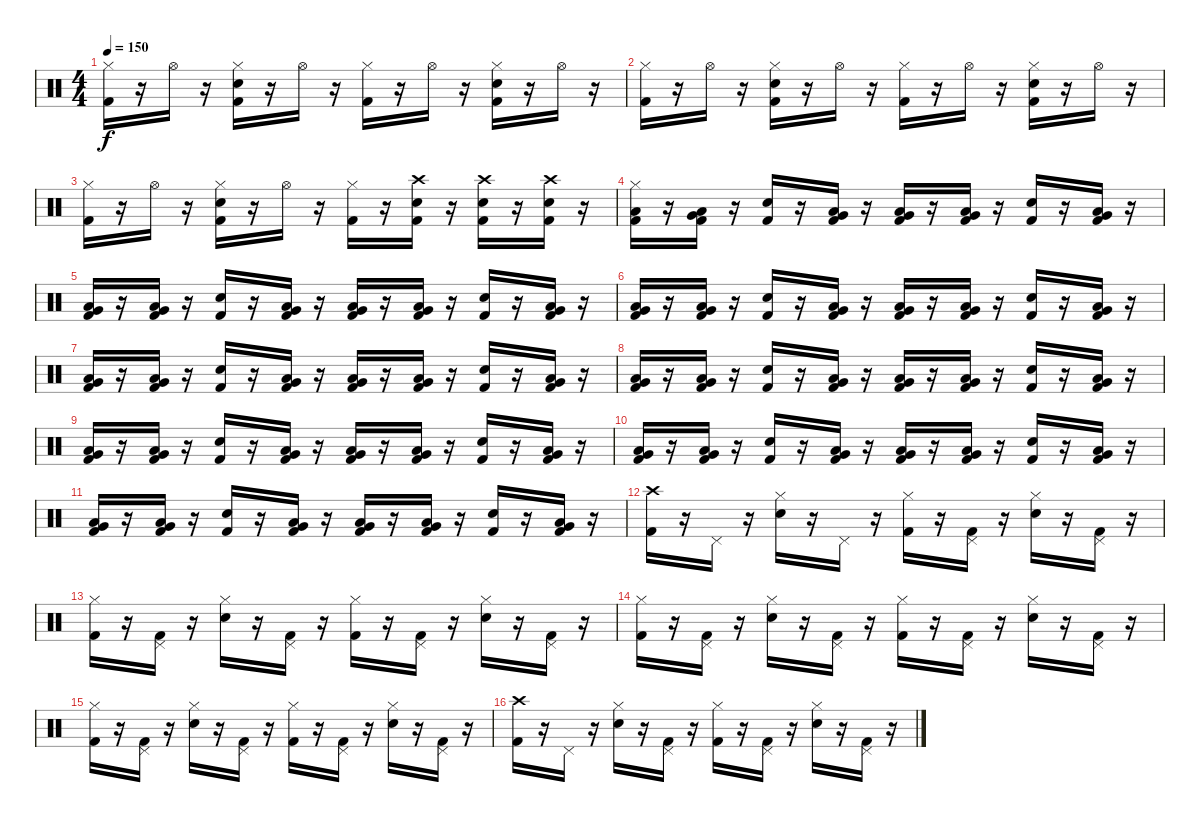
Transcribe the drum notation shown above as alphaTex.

\track "" {instrument percussion}
\staff {score}
\articulation defaults
\ts (4 4)
\tempo 150
\clef neutral
\ks c
("Hi-Hat (closed)" "Kick (hit) 2").16{dy f} r.16 "Hi-Hat (open)".16 r.16 ("Electric Snare (hit)" "Kick (hit) 2" "Hi-Hat (closed)").16 r.16 "Hi-Hat (open)".16 r.16 ("Kick (hit) 2" "Hi-Hat (closed)").16 r.16 "Hi-Hat (open)".16 r.16 ("Electric Snare (hit)" "Kick (hit) 2" "Hi-Hat (closed)").16 r.16 "Hi-Hat (open)".16 r.16 |
("Hi-Hat (closed)" "Kick (hit) 2").16 r.16 "Hi-Hat (open)".16 r.16 ("Hi-Hat (closed)" "Kick (hit) 2" "Electric Snare (hit)").16 r.16 "Hi-Hat (open)".16 r.16 ("Hi-Hat (closed)" "Kick (hit) 2").16 r.16 "Hi-Hat (open)".16 r.16 ("Hi-Hat (closed)" "Kick (hit) 2" "Electric Snare (hit)").16 r.16 "Hi-Hat (open)".16 r.16 |
("Hi-Hat (closed)" "Kick (hit) 2").16 r.16 "Hi-Hat (open)".16 r.16 ("Electric Snare (hit)" "Kick (hit) 2" "Hi-Hat (closed)").16 r.16 "Hi-Hat (open)".16 r.16 ("Kick (hit) 2" "Hi-Hat (closed)").16 r.16 ("Kick (hit) 2" "Crash high (hit)" "Electric Snare (hit)").16 r.16 ("Crash high (hit)" "Electric Snare (hit)" "Kick (hit) 2").16 r.16 ("Kick (hit) 2" "Electric Snare (hit)" "Crash high (hit)").16 r.16 |
("Hi-Hat (closed)" "Kick (hit) 2" "Low Tom (hit)").16 r.16 ("Kick (hit) 2" "Very Low Tom (hit)" "Low Tom (hit)").16 r.16 ("Kick (hit) 2" "Electric Snare (hit)").16 r.16 ("Kick (hit) 2" "Low Tom (hit)" "Very Low Tom (hit)").16 r.16 ("Kick (hit) 2" "Very Low Tom (hit)" "Low Tom (hit)").16 r.16 ("Kick (hit) 2" "Very Low Tom (hit)" "Low Tom (hit)").16 r.16 ("Kick (hit) 2" "Electric Snare (hit)").16 r.16 ("Kick (hit) 2" "Very Low Tom (hit)" "Low Tom (hit)").16 r.16 |
("Kick (hit) 2" "Very Low Tom (hit)" "Low Tom (hit)").16 r.16 ("Kick (hit) 2" "Low Tom (hit)" "Very Low Tom (hit)").16 r.16 ("Kick (hit) 2" "Electric Snare (hit)").16 r.16 ("Kick (hit) 2" "Very Low Tom (hit)" "Low Tom (hit)").16 r.16 ("Kick (hit) 2" "Low Tom (hit)" "Very Low Tom (hit)").16 r.16 ("Kick (hit) 2" "Low Tom (hit)" "Very Low Tom (hit)").16 r.16 ("Kick (hit) 2" "Electric Snare (hit)").16 r.16 ("Kick (hit) 2" "Low Tom (hit)" "Very Low Tom (hit)").16 r.16 |
("Kick (hit) 2" "Very Low Tom (hit)" "Low Tom (hit)").16 r.16 ("Kick (hit) 2" "Very Low Tom (hit)" "Low Tom (hit)").16 r.16 ("Kick (hit) 2" "Electric Snare (hit)").16 r.16 ("Kick (hit) 2" "Low Tom (hit)" "Very Low Tom (hit)").16 r.16 ("Kick (hit) 2" "Very Low Tom (hit)" "Low Tom (hit)").16 r.16 ("Kick (hit) 2" "Very Low Tom (hit)" "Low Tom (hit)").16 r.16 ("Kick (hit) 2" "Electric Snare (hit)").16 r.16 ("Kick (hit) 2" "Very Low Tom (hit)" "Low Tom (hit)").16 r.16 |
("Kick (hit) 2" "Very Low Tom (hit)" "Low Tom (hit)").16 r.16 ("Kick (hit) 2" "Low Tom (hit)" "Very Low Tom (hit)").16 r.16 ("Kick (hit) 2" "Electric Snare (hit)").16 r.16 ("Kick (hit) 2" "Very Low Tom (hit)" "Low Tom (hit)").16 r.16 ("Kick (hit) 2" "Low Tom (hit)" "Very Low Tom (hit)").16 r.16 ("Kick (hit) 2" "Low Tom (hit)" "Very Low Tom (hit)").16 r.16 ("Kick (hit) 2" "Electric Snare (hit)").16 r.16 ("Kick (hit) 2" "Low Tom (hit)" "Very Low Tom (hit)").16 r.16 |
("Low Tom (hit)" "Very Low Tom (hit)" "Kick (hit) 2").16 r.16 ("Very Low Tom (hit)" "Low Tom (hit)" "Kick (hit) 2").16 r.16 ("Electric Snare (hit)" "Kick (hit) 2").16 r.16 ("Low Tom (hit)" "Very Low Tom (hit)" "Kick (hit) 2").16 r.16 ("Very Low Tom (hit)" "Low Tom (hit)" "Kick (hit) 2").16 r.16 ("Very Low Tom (hit)" "Low Tom (hit)" "Kick (hit) 2").16 r.16 ("Electric Snare (hit)" "Kick (hit) 2").16 r.16 ("Very Low Tom (hit)" "Low Tom (hit)" "Kick (hit) 2").16 r.16 |
("Very Low Tom (hit)" "Low Tom (hit)" "Kick (hit) 2").16 r.16 ("Kick (hit) 2" "Low Tom (hit)" "Very Low Tom (hit)").16 r.16 ("Kick (hit) 2" "Electric Snare (hit)").16 r.16 ("Kick (hit) 2" "Very Low Tom (hit)" "Low Tom (hit)").16 r.16 ("Kick (hit) 2" "Low Tom (hit)" "Very Low Tom (hit)").16 r.16 ("Kick (hit) 2" "Low Tom (hit)" "Very Low Tom (hit)").16 r.16 ("Kick (hit) 2" "Electric Snare (hit)").16 r.16 ("Kick (hit) 2" "Low Tom (hit)" "Very Low Tom (hit)").16 r.16 |
("Low Tom (hit)" "Very Low Tom (hit)" "Kick (hit) 2").16 r.16 ("Very Low Tom (hit)" "Low Tom (hit)" "Kick (hit) 2").16 r.16 ("Electric Snare (hit)" "Kick (hit) 2").16 r.16 ("Low Tom (hit)" "Very Low Tom (hit)" "Kick (hit) 2").16 r.16 ("Very Low Tom (hit)" "Low Tom (hit)" "Kick (hit) 2").16 r.16 ("Very Low Tom (hit)" "Low Tom (hit)" "Kick (hit) 2").16 r.16 ("Electric Snare (hit)" "Kick (hit) 2").16 r.16 ("Very Low Tom (hit)" "Low Tom (hit)" "Kick (hit) 2").16 r.16 |
("Very Low Tom (hit)" "Low Tom (hit)" "Kick (hit) 2").16 r.16 ("Kick (hit) 2" "Low Tom (hit)" "Very Low Tom (hit)").16 r.16 ("Kick (hit) 2" "Electric Snare (hit)").16 r.16 ("Kick (hit) 2" "Very Low Tom (hit)" "Low Tom (hit)").16 r.16 ("Kick (hit) 2" "Low Tom (hit)" "Very Low Tom (hit)").16 r.16 ("Kick (hit) 2" "Low Tom (hit)" "Very Low Tom (hit)").16 r.16 ("Kick (hit) 2" "Electric Snare (hit)").16 r.16 ("Kick (hit) 2" "Low Tom (hit)" "Very Low Tom (hit)").16 r.16 |
("Crash high (hit)" "Kick (hit) 2").16 r.16 "Pedal Hi-Hat (hit)".16 r.16 ("Electric Snare (hit)" "Hi-Hat (closed)").16 r.16 "Pedal Hi-Hat (hit)".16 r.16 ("Kick (hit) 2" "Hi-Hat (closed)").16 r.16 ("Kick (hit) 2" "Pedal Hi-Hat (hit)").16 r.16 ("Electric Snare (hit)" "Hi-Hat (closed)").16 r.16 ("Kick (hit) 2" "Pedal Hi-Hat (hit)").16 r.16 |
("Hi-Hat (closed)" "Kick (hit) 2").16 r.16 ("Kick (hit) 2" "Pedal Hi-Hat (hit)").16 r.16 ("Hi-Hat (closed)" "Electric Snare (hit)").16 r.16 ("Kick (hit) 2" "Pedal Hi-Hat (hit)").16 r.16 ("Hi-Hat (closed)" "Kick (hit) 2").16 r.16 ("Pedal Hi-Hat (hit)" "Kick (hit) 2").16 r.16 ("Hi-Hat (closed)" "Electric Snare (hit)").16 r.16 ("Kick (hit) 2" "Pedal Hi-Hat (hit)").16 r.16 |
("Hi-Hat (closed)" "Kick (hit) 2").16 r.16 ("Pedal Hi-Hat (hit)" "Kick (hit) 2").16 r.16 ("Electric Snare (hit)" "Hi-Hat (closed)").16 r.16 ("Kick (hit) 2" "Pedal Hi-Hat (hit)").16 r.16 ("Kick (hit) 2" "Hi-Hat (closed)").16 r.16 ("Kick (hit) 2" "Pedal Hi-Hat (hit)").16 r.16 ("Electric Snare (hit)" "Hi-Hat (closed)").16 r.16 ("Kick (hit) 2" "Pedal Hi-Hat (hit)").16 r.16 |
("Hi-Hat (closed)" "Kick (hit) 2").16 r.16 ("Kick (hit) 2" "Pedal Hi-Hat (hit)").16 r.16 ("Hi-Hat (closed)" "Electric Snare (hit)").16 r.16 ("Pedal Hi-Hat (hit)" "Kick (hit) 2").16 r.16 ("Hi-Hat (closed)" "Kick (hit) 2").16 r.16 ("Pedal Hi-Hat (hit)" "Kick (hit) 2").16 r.16 ("Hi-Hat (closed)" "Electric Snare (hit)").16 r.16 ("Pedal Hi-Hat (hit)" "Kick (hit) 2").16 r.16 |
("Crash high (hit)" "Kick (hit) 2").16 r.16 "Pedal Hi-Hat (hit)".16 r.16 ("Hi-Hat (closed)" "Electric Snare (hit)").16 r.16 ("Pedal Hi-Hat (hit)" "Kick (hit) 2").16 r.16 ("Hi-Hat (closed)" "Kick (hit) 2").16 r.16 ("Pedal Hi-Hat (hit)" "Kick (hit) 2").16 r.16 ("Hi-Hat (closed)" "Electric Snare (hit)").16 r.16 ("Pedal Hi-Hat (hit)" "Kick (hit) 2").16 r.16
